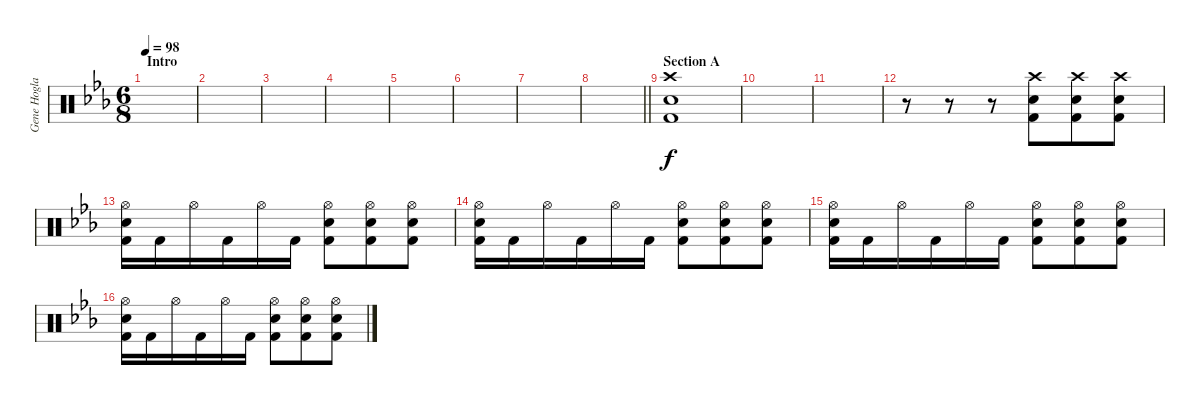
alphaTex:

\track ("Gene Hogland" "Gene Hogla") {instrument percussion}
\staff {score}
\articulation defaults
\ts (6 8)
\section ("" "Intro")
\tempo 98
\clef neutral
\ks eb
|
|
|
|
|
|
|
\barLineRight lightlight
|
\section ("" "Section A")
("Crash high (hit)" "Electric Snare (hit)" "Kick (hit) 2").1 |
|
|
r.8 r.8 r.8 ("Crash high (hit)" "Electric Snare (hit)" "Kick (hit) 2").8 ("Crash high (hit)" "Electric Snare (hit)" "Kick (hit) 2").8 ("Crash high (hit)" "Electric Snare (hit)" "Kick (hit) 2").8 |
("Hi-Hat (open)" "Electric Snare (hit)" "Kick (hit) 2").16 "Kick (hit) 2".16 "Hi-Hat (open)".16 "Kick (hit) 2".16 "Hi-Hat (open)".16 "Kick (hit) 2".16 ("Hi-Hat (open)" "Electric Snare (hit)" "Kick (hit) 2").8 ("Hi-Hat (open)" "Electric Snare (hit)" "Kick (hit) 2").8 ("Hi-Hat (open)" "Electric Snare (hit)" "Kick (hit) 2").8 |
("Hi-Hat (open)" "Electric Snare (hit)" "Kick (hit) 2").16 "Kick (hit) 2".16 "Hi-Hat (open)".16 "Kick (hit) 2".16 "Hi-Hat (open)".16 "Kick (hit) 2".16 ("Hi-Hat (open)" "Electric Snare (hit)" "Kick (hit) 2").8 ("Hi-Hat (open)" "Electric Snare (hit)" "Kick (hit) 2").8 ("Hi-Hat (open)" "Electric Snare (hit)" "Kick (hit) 2").8 |
("Hi-Hat (open)" "Electric Snare (hit)" "Kick (hit) 2").16 "Kick (hit) 2".16 "Hi-Hat (open)".16 "Kick (hit) 2".16 "Hi-Hat (open)".16 "Kick (hit) 2".16 ("Hi-Hat (open)" "Electric Snare (hit)" "Kick (hit) 2").8 ("Hi-Hat (open)" "Electric Snare (hit)" "Kick (hit) 2").8 ("Hi-Hat (open)" "Electric Snare (hit)" "Kick (hit) 2").8 |
("Hi-Hat (open)" "Electric Snare (hit)" "Kick (hit) 2").16 "Kick (hit) 2".16 "Hi-Hat (open)".16 "Kick (hit) 2".16 "Hi-Hat (open)".16 "Kick (hit) 2".16 ("Hi-Hat (open)" "Electric Snare (hit)" "Kick (hit) 2").8 ("Hi-Hat (open)" "Electric Snare (hit)" "Kick (hit) 2").8 ("Hi-Hat (open)" "Electric Snare (hit)" "Kick (hit) 2").8
